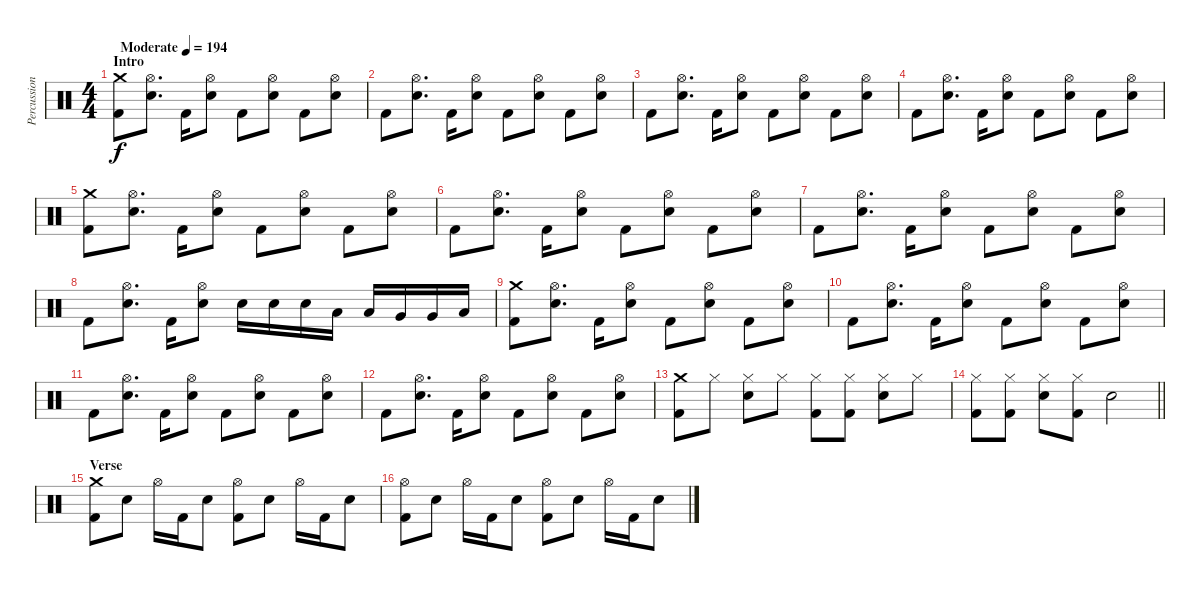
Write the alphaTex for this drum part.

\track ("Percussions" "Percussion") {instrument percussion}
\staff {score}
\articulation defaults
\ts (4 4)
\section ("" "Intro")
\tempo (194 "Moderate")
\clef neutral
\ks c
("Crash medium (hit)" "Kick (hit) 2").8{dy f} ("Hi-Hat (open)" "Electric Snare (hit)").8{d} "Kick (hit) 2".16 ("Hi-Hat (open)" "Electric Snare (hit)").8 "Kick (hit) 2".8 ("Hi-Hat (open)" "Electric Snare (hit)").8 "Kick (hit) 2".8 ("Hi-Hat (open)" "Electric Snare (hit)").8 |
"Kick (hit) 2".8 ("Hi-Hat (open)" "Electric Snare (hit)").8{d} "Kick (hit) 2".16 ("Hi-Hat (open)" "Electric Snare (hit)").8 "Kick (hit) 2".8 ("Hi-Hat (open)" "Electric Snare (hit)").8 "Kick (hit) 2".8 ("Hi-Hat (open)" "Electric Snare (hit)").8 |
"Kick (hit) 2".8 ("Hi-Hat (open)" "Electric Snare (hit)").8{d} "Kick (hit) 2".16 ("Hi-Hat (open)" "Electric Snare (hit)").8 "Kick (hit) 2".8 ("Hi-Hat (open)" "Electric Snare (hit)").8 "Kick (hit) 2".8 ("Hi-Hat (open)" "Electric Snare (hit)").8 |
"Kick (hit) 2".8 ("Hi-Hat (open)" "Electric Snare (hit)").8{d} "Kick (hit) 2".16 ("Hi-Hat (open)" "Electric Snare (hit)").8 "Kick (hit) 2".8 ("Hi-Hat (open)" "Electric Snare (hit)").8 "Kick (hit) 2".8 ("Hi-Hat (open)" "Electric Snare (hit)").8 |
("Crash medium (hit)" "Kick (hit) 2").8 ("Hi-Hat (open)" "Electric Snare (hit)").8{d} "Kick (hit) 2".16 ("Hi-Hat (open)" "Electric Snare (hit)").8 "Kick (hit) 2".8 ("Hi-Hat (open)" "Electric Snare (hit)").8 "Kick (hit) 2".8 ("Hi-Hat (open)" "Electric Snare (hit)").8 |
"Kick (hit) 2".8 ("Hi-Hat (open)" "Electric Snare (hit)").8{d} "Kick (hit) 2".16 ("Hi-Hat (open)" "Electric Snare (hit)").8 "Kick (hit) 2".8 ("Hi-Hat (open)" "Electric Snare (hit)").8 "Kick (hit) 2".8 ("Hi-Hat (open)" "Electric Snare (hit)").8 |
"Kick (hit) 2".8 ("Hi-Hat (open)" "Electric Snare (hit)").8{d} "Kick (hit) 2".16 ("Hi-Hat (open)" "Electric Snare (hit)").8 "Kick (hit) 2".8 ("Hi-Hat (open)" "Electric Snare (hit)").8 "Kick (hit) 2".8 ("Hi-Hat (open)" "Electric Snare (hit)").8 |
"Kick (hit) 2".8 ("Hi-Hat (open)" "Electric Snare (hit)").8{d} "Kick (hit) 2".16 ("Hi-Hat (open)" "Electric Snare (hit)").8 "Electric Snare (hit)".16 "Electric Snare (hit)".16 "Electric Snare (hit)".16 "Low Tom (hit)".16 "Low Tom (hit)".16 "Very Low Tom (hit)".16 "Very Low Tom (hit)".16 "Low Floor Tom (hit)".16 |
("Crash medium (hit)" "Kick (hit) 2").8 ("Hi-Hat (open)" "Electric Snare (hit)").8{d} "Kick (hit) 2".16 ("Hi-Hat (open)" "Electric Snare (hit)").8 "Kick (hit) 2".8 ("Hi-Hat (open)" "Electric Snare (hit)").8 "Kick (hit) 2".8 ("Hi-Hat (open)" "Electric Snare (hit)").8 |
"Kick (hit) 2".8 ("Hi-Hat (open)" "Electric Snare (hit)").8{d} "Kick (hit) 2".16 ("Hi-Hat (open)" "Electric Snare (hit)").8 "Kick (hit) 2".8 ("Hi-Hat (open)" "Electric Snare (hit)").8 "Kick (hit) 2".8 ("Hi-Hat (open)" "Electric Snare (hit)").8 |
"Kick (hit) 2".8 ("Hi-Hat (open)" "Electric Snare (hit)").8{d} "Kick (hit) 2".16 ("Hi-Hat (open)" "Electric Snare (hit)").8 "Kick (hit) 2".8 ("Hi-Hat (open)" "Electric Snare (hit)").8 "Kick (hit) 2".8 ("Hi-Hat (open)" "Electric Snare (hit)").8 |
"Kick (hit) 2".8 ("Hi-Hat (open)" "Electric Snare (hit)").8{d} "Kick (hit) 2".16 ("Hi-Hat (open)" "Electric Snare (hit)").8 "Kick (hit) 2".8 ("Hi-Hat (open)" "Electric Snare (hit)").8 "Kick (hit) 2".8 ("Hi-Hat (open)" "Electric Snare (hit)").8 |
("Crash medium (hit)" "Kick (hit) 2").8 "Hi-Hat (closed)".8 ("Hi-Hat (closed)" "Electric Snare (hit)").8 "Hi-Hat (closed)".8 ("Hi-Hat (closed)" "Kick (hit) 2").8 ("Hi-Hat (closed)" "Kick (hit) 2").8 ("Hi-Hat (closed)" "Electric Snare (hit)").8 "Hi-Hat (closed)".8 |
\barLineRight lightlight
("Hi-Hat (closed)" "Kick (hit) 2").8 ("Hi-Hat (closed)" "Kick (hit) 2").8 ("Hi-Hat (closed)" "Electric Snare (hit)").8 ("Hi-Hat (closed)" "Kick (hit) 2").8 "Electric Snare (hit)".2 |
\section ("" "Verse")
("Crash medium (hit)" "Kick (hit) 2").8 "Electric Snare (hit)".8 "Hi-Hat (open)".16 "Kick (hit) 2".16 "Electric Snare (hit)".8 ("Hi-Hat (open)" "Kick (hit) 2").8 "Electric Snare (hit)".8 "Hi-Hat (open)".16 "Kick (hit) 2".16 "Electric Snare (hit)".8 |
("Hi-Hat (open)" "Kick (hit) 2").8 "Electric Snare (hit)".8 "Hi-Hat (open)".16 "Kick (hit) 2".16 "Electric Snare (hit)".8 ("Hi-Hat (open)" "Kick (hit) 2").8 "Electric Snare (hit)".8 "Hi-Hat (open)".16 "Kick (hit) 2".16 "Electric Snare (hit)".8
